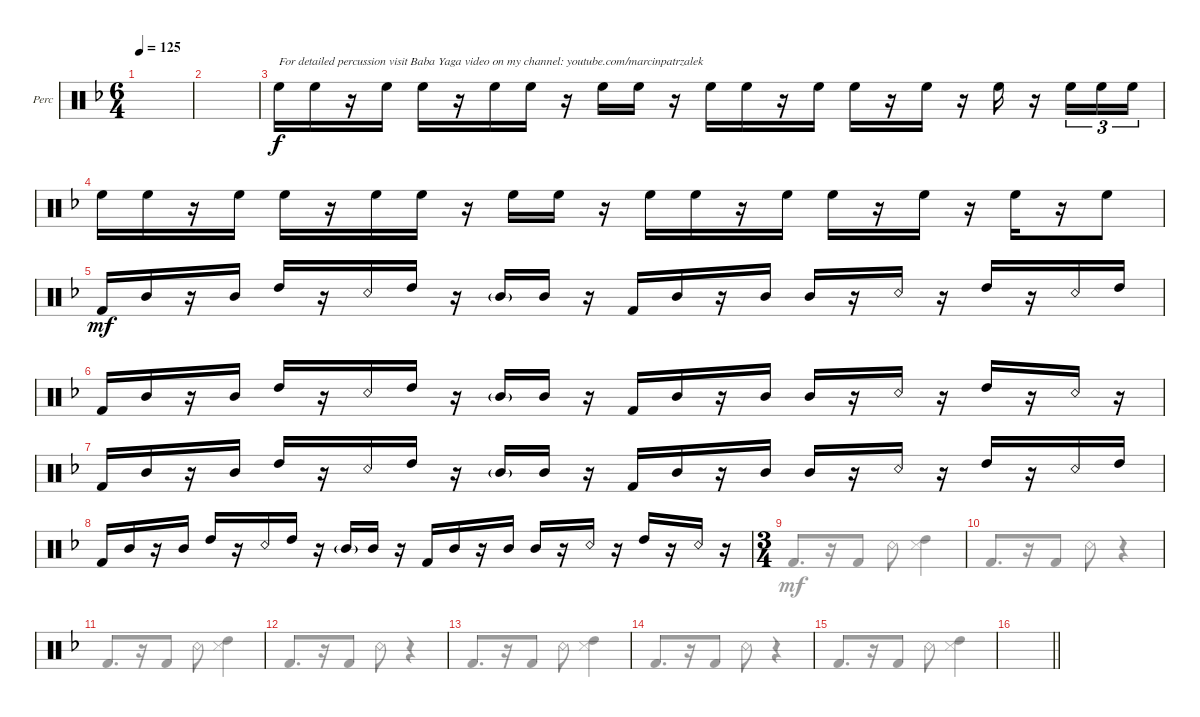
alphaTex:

\defaultSystemsLayout 4
\bracketExtendMode groupsimilarinstruments
\firstSystemTrackNameOrientation horizontal
\otherSystemsTrackNameOrientation horizontal
\track ("Body Percussion" "Perc") {instrument percussion}
\staff {score}
\articulation defaults
\voice
\ts (6 4)
\scale
0.54993
\tempo 125
\accidentals auto
\clef neutral
\ottava regular
\simile none
\ks dminor
|
\scale
0.450057 |
"High Floor Tom (hit)"{acc forcenatural}.16{txt "For detailed percussion visit Baba Yaga video on my channel: youtube.com/marcinpatrzalek" beam Down} "High Floor Tom (hit)"{acc forcenatural}.16{beam Down} r.16{beam Down} "High Floor Tom (hit)"{acc forcenatural}.16{beam Down} "High Floor Tom (hit)"{acc forcenatural}.16{beam Down} r.16{beam Down} "High Floor Tom (hit)"{acc forcenatural}.16{beam Down} "High Floor Tom (hit)"{acc forcenatural}.16{beam Down} r.16{beam Down} "High Floor Tom (hit)"{acc forcenatural}.16{beam Down} "High Floor Tom (hit)"{acc forcenatural}.16{beam Down} r.16{beam Down} "High Floor Tom (hit)"{acc forcenatural}.16{beam Down} "High Floor Tom (hit)"{acc forcenatural}.16{beam Down} r.16{beam Down} "High Floor Tom (hit)"{acc forcenatural}.16{beam Down} "High Floor Tom (hit)"{acc forcenatural}.16{beam Down} r.16{beam Down} "High Floor Tom (hit)"{acc forcenatural}.16{beam Down} r.16{beam Down} "High Floor Tom (hit)"{acc forcenatural}.16{beam Down} r.16{beam Down} "High Floor Tom (hit)"{acc forcenatural}.16{tu (3 2) beam Down} "High Floor Tom (hit)"{acc forcenatural}.16{tu (3 2) beam Down} "High Floor Tom (hit)"{acc forcenatural}.16{tu (3 2) beam Down} |
\scale
0.499518 "High Floor Tom (hit)"{acc forcenatural}.16{beam Down} "High Floor Tom (hit)"{acc forcenatural}.16{beam Down} r.16{beam Down} "High Floor Tom (hit)"{acc forcenatural}.16{beam Down} "High Floor Tom (hit)"{acc forcenatural}.16{beam Down} r.16{beam Down} "High Floor Tom (hit)"{acc forcenatural}.16{beam Down} "High Floor Tom (hit)"{acc forcenatural}.16{beam Down} r.16{beam Down} "High Floor Tom (hit)"{acc forcenatural}.16{beam Down} "High Floor Tom (hit)"{acc forcenatural}.16{beam Down} r.16{beam Down} "High Floor Tom (hit)"{acc forcenatural}.16{beam Down} "High Floor Tom (hit)"{acc forcenatural}.16{beam Down} r.16{beam Down} "High Floor Tom (hit)"{acc forcenatural}.16{beam Down} "High Floor Tom (hit)"{acc forcenatural}.16{beam Down} r.16{beam Down} "High Floor Tom (hit)"{acc forcenatural}.16{beam Down} r.16{beam Down} "High Floor Tom (hit)"{acc forcenatural}.16{beam Down} r.16{beam Down} "High Floor Tom (hit)"{acc forcenatural}.8{beam Down} |
\scale
0.50049 "Kick (hit) 2"{acc forcenatural}.16{dy mf beam Up} "Mid Tom (hit)"{acc forcenatural}.16{beam Up} r.16{beam Up} "Mid Tom (hit)"{acc forcenatural}.16{beam Up} "High Tom (hit)"{acc forcenatural}.16{beam Up} r.16{beam Up} "Snare (rim shot)"{acc forcenatural}.16{beam Up} "High Tom (hit)"{acc forcenatural}.16{beam Up} r.16{beam Up} "Mid Tom (hit)"{g acc forcenatural}.16{beam Up} "Mid Tom (hit)"{acc forcenatural}.16{beam Up} r.16{beam Up} "Kick (hit) 2"{acc forcenatural}.16{beam Up} "Mid Tom (hit)"{acc forcenatural}.16{beam Up} r.16{beam Up} "Mid Tom (hit)"{acc forcenatural}.16{beam Up} "Mid Tom (hit)"{acc forcenatural}.16{beam Up} r.16{beam Up} "Snare (rim shot)"{acc forcenatural}.16{beam Up} r.16{beam Up} "High Tom (hit)"{acc forcenatural}.16{beam Up} r.16{beam Up} "Snare (rim shot)"{acc forcenatural}.16{beam Up} "High Tom (hit)"{acc forcenatural}.16{beam Up} |
\scale
0.522835 "Kick (hit) 2"{acc forcenatural}.16{beam Up} "Mid Tom (hit)"{acc forcenatural}.16{beam Up} r.16{beam Up} "Mid Tom (hit)"{acc forcenatural}.16{beam Up} "High Tom (hit)"{acc forcenatural}.16{beam Up} r.16{beam Up} "Snare (rim shot)"{acc forcenatural}.16{beam Up} "High Tom (hit)"{acc forcenatural}.16{beam Up} r.16{beam Up} "Mid Tom (hit)"{g acc forcenatural}.16{beam Up} "Mid Tom (hit)"{acc forcenatural}.16{beam Up} r.16{beam Up} "Kick (hit) 2"{acc forcenatural}.16{beam Up} "Mid Tom (hit)"{acc forcenatural}.16{beam Up} r.16{beam Up} "Mid Tom (hit)"{acc forcenatural}.16{beam Up} "Mid Tom (hit)"{acc forcenatural}.16{beam Up} r.16{beam Up} "Snare (rim shot)"{acc forcenatural}.16{beam Up} r.16{beam Up} "High Tom (hit)"{acc forcenatural}.16{beam Up} r.16{beam Up} "Snare (rim shot)"{acc forcenatural}.16{beam Up} r.16{beam Up} |
\scale
0.477193 "Kick (hit) 2"{acc forcenatural}.16{beam Up} "Mid Tom (hit)"{acc forcenatural}.16{beam Up} r.16{beam Up} "Mid Tom (hit)"{acc forcenatural}.16{beam Up} "High Tom (hit)"{acc forcenatural}.16{beam Up} r.16{beam Up} "Snare (rim shot)"{acc forcenatural}.16{beam Up} "High Tom (hit)"{acc forcenatural}.16{beam Up} r.16{beam Up} "Mid Tom (hit)"{g acc forcenatural}.16{beam Up} "Mid Tom (hit)"{acc forcenatural}.16{beam Up} r.16{beam Up} "Kick (hit) 2"{acc forcenatural}.16{beam Up} "Mid Tom (hit)"{acc forcenatural}.16{beam Up} r.16{beam Up} "Mid Tom (hit)"{acc forcenatural}.16{beam Up} "Mid Tom (hit)"{acc forcenatural}.16{beam Up} r.16{beam Up} "Snare (rim shot)"{acc forcenatural}.16{beam Up} r.16{beam Up} "High Tom (hit)"{acc forcenatural}.16{beam Up} r.16{beam Up} "Snare (rim shot)"{acc forcenatural}.16{beam Up} "High Tom (hit)"{acc forcenatural}.16{beam Up} |
"Kick (hit) 2"{acc forcenatural}.16{beam Up} "Mid Tom (hit)"{acc forcenatural}.16{beam Up} r.16{beam Up} "Mid Tom (hit)"{acc forcenatural}.16{beam Up} "High Tom (hit)"{acc forcenatural}.16{beam Up} r.16{beam Up} "Snare (rim shot)"{acc forcenatural}.16{beam Up} "High Tom (hit)"{acc forcenatural}.16{beam Up} r.16{beam Up} "Mid Tom (hit)"{g acc forcenatural}.16{beam Up} "Mid Tom (hit)"{acc forcenatural}.16{beam Up} r.16{beam Up} "Kick (hit) 2"{acc forcenatural}.16{beam Up} "Mid Tom (hit)"{acc forcenatural}.16{beam Up} r.16{beam Up} "Mid Tom (hit)"{acc forcenatural}.16{beam Up} "Mid Tom (hit)"{acc forcenatural}.16{beam Up} r.16{beam Up} "Snare (rim shot)"{acc forcenatural}.16{beam Up} r.16{beam Up} "High Tom (hit)"{acc forcenatural}.16{beam Up} r.16{beam Up} "Snare (rim shot)"{acc forcenatural}.16{beam Up} r.16{beam Up} |
\ts (3 4)
\beaming (8 3 3)
|
|
\scale
0.549579 |
\scale
0.450388 |
|
\scale
0.502936 |
\scale
0.497154 |
\barLineRight lightlight
\voice
\clef neutral
\ottava regular
\simile none
\ks dminor
|
|
|
|
|
|
|
|
"Kick (hit) 2"{acc forcenatural}.8{d beam Up} r.16{beam Up} "Kick (hit) 2"{acc forcenatural}.8{beam Up} "Snare (rim shot)"{acc forcenatural}.8{beam Down} ("High Tom (hit)"{acc forcenatural} "Snare (side stick) 3"{acc forcenatural}).4{beam Down} |
"Kick (hit) 2"{acc forcenatural}.8{d beam Up} r.16{beam Up} "Kick (hit) 2"{acc forcenatural}.8{beam Up} "Snare (rim shot)"{acc forcenatural}.8{beam Down} r.4{beam Down} |
"Kick (hit) 2"{acc forcenatural}.8{d beam Up} r.16{beam Up} "Kick (hit) 2"{acc forcenatural}.8{beam Up} "Snare (rim shot)"{acc forcenatural}.8{beam Down} ("High Tom (hit)"{acc forcenatural} "Snare (side stick) 3"{acc forcenatural}).4{beam Down} |
"Kick (hit) 2"{acc forcenatural}.8{d beam Up} r.16{beam Up} "Kick (hit) 2"{acc forcenatural}.8{beam Up} "Snare (rim shot)"{acc forcenatural}.8{beam Down} r.4{beam Down} |
"Kick (hit) 2"{acc forcenatural}.8{d beam Up} r.16{beam Up} "Kick (hit) 2"{acc forcenatural}.8{beam Up} "Snare (rim shot)"{acc forcenatural}.8{beam Down} ("High Tom (hit)"{acc forcenatural} "Snare (side stick) 3"{acc forcenatural}).4{beam Down} |
"Kick (hit) 2"{acc forcenatural}.8{d beam Up} r.16{beam Up} "Kick (hit) 2"{acc forcenatural}.8{beam Up} "Snare (rim shot)"{acc forcenatural}.8{beam Down} r.4{beam Down} |
"Kick (hit) 2"{acc forcenatural}.8{d beam Up} r.16{beam Up} "Kick (hit) 2"{acc forcenatural}.8{beam Up} "Snare (rim shot)"{acc forcenatural}.8{beam Down} ("High Tom (hit)"{acc forcenatural} "Snare (side stick) 3"{acc forcenatural}).4{beam Down} |
\barLineRight lightlight
